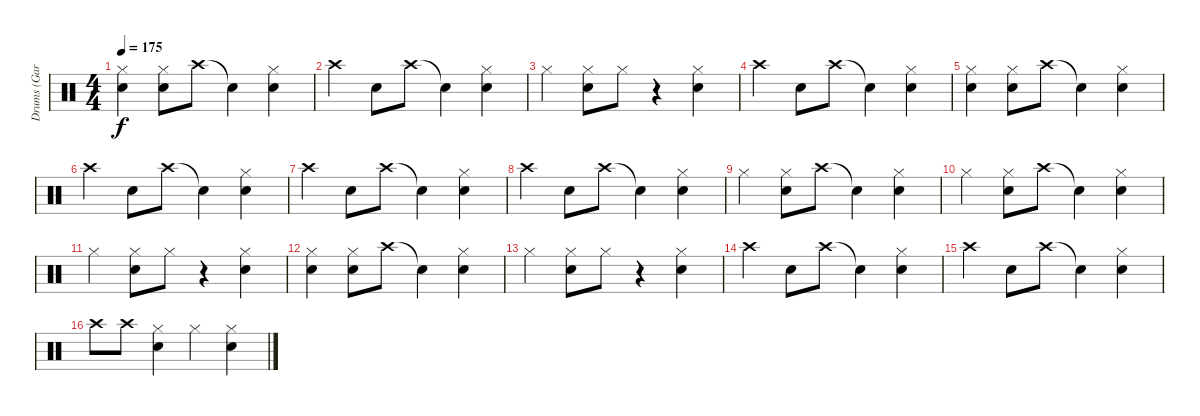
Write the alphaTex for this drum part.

\track ("Drums (Gar Samuelson)" "Drums (Gar") {instrument percussion}
\staff {score}
\articulation defaults
\ts (4 4)
\tempo 175
\clef neutral
\ks c
("Hi-Hat (closed)" "Snare (hit) 2").4{dy f} ("Hi-Hat (closed)" "Snare (hit) 2").8 "Crash high (hit)".8 "Snare (hit)"{t}.4 ("Hi-Hat (closed)" "Snare (hit) 2").4 |
"Crash high (hit)".4 "Snare (hit) 2".8 "Crash high (hit)".8 "Snare (hit)"{t}.4 ("Hi-Hat (closed)" "Snare (hit) 2").4 |
"Hi-Hat (closed)".4 ("Hi-Hat (closed)" "Snare (hit) 2").8 "Hi-Hat (closed)".8 r.4 ("Hi-Hat (closed)" "Snare (hit) 2").4 |
"Crash high (hit)".4 "Snare (hit) 2".8 "Crash high (hit)".8 "Snare (hit)"{t}.4 ("Hi-Hat (closed)" "Snare (hit) 2").4 |
("Hi-Hat (closed)" "Snare (hit) 2").4 ("Hi-Hat (closed)" "Snare (hit) 2").8 "Crash high (hit)".8 "Snare (hit)"{t}.4 ("Hi-Hat (closed)" "Snare (hit) 2").4 |
"Crash high (hit)".4 "Snare (hit) 2".8 "Crash high (hit)".8 "Snare (hit)"{t}.4 ("Hi-Hat (closed)" "Snare (hit) 2").4 |
"Crash high (hit)".4 "Snare (hit) 2".8 "Crash high (hit)".8 "Snare (hit)"{t}.4 ("Hi-Hat (closed)" "Snare (hit) 2").4 |
"Crash high (hit)".4 "Snare (hit) 2".8 "Crash high (hit)".8 "Snare (hit)"{t}.4 ("Hi-Hat (closed)" "Snare (hit) 2").4 |
"Hi-Hat (closed)".4 ("Hi-Hat (closed)" "Snare (hit) 2").8 "Crash high (hit)".8 "Snare (hit)"{t}.4 ("Hi-Hat (closed)" "Snare (hit) 2").4 |
"Hi-Hat (closed)".4 ("Hi-Hat (closed)" "Snare (hit) 2").8 "Crash high (hit)".8 "Snare (hit)"{t}.4 ("Hi-Hat (closed)" "Snare (hit) 2").4 |
"Hi-Hat (closed)".4 ("Hi-Hat (closed)" "Snare (hit) 2").8 "Hi-Hat (closed)".8 r.4 ("Hi-Hat (closed)" "Snare (hit) 2").4 |
("Hi-Hat (closed)" "Snare (hit) 2").4 ("Hi-Hat (closed)" "Snare (hit) 2").8 "Crash high (hit)".8 "Snare (hit)"{t}.4 ("Hi-Hat (closed)" "Snare (hit) 2").4 |
"Hi-Hat (closed)".4 ("Hi-Hat (closed)" "Snare (hit) 2").8 "Hi-Hat (closed)".8 r.4 ("Hi-Hat (closed)" "Snare (hit) 2").4 |
"Crash high (hit)".4 "Snare (hit) 2".8 "Crash high (hit)".8 "Snare (hit)"{t}.4 ("Hi-Hat (closed)" "Snare (hit) 2").4 |
"Crash high (hit)".4 "Snare (hit) 2".8 "Crash high (hit)".8 "Snare (hit)"{t}.4 ("Hi-Hat (closed)" "Snare (hit) 2").4 |
"Crash high (hit)".8 "Crash high (hit)".8 ("Hi-Hat (closed)" "Snare (hit) 2").4 "Hi-Hat (closed)".4 ("Hi-Hat (closed)" "Snare (hit) 2").4
